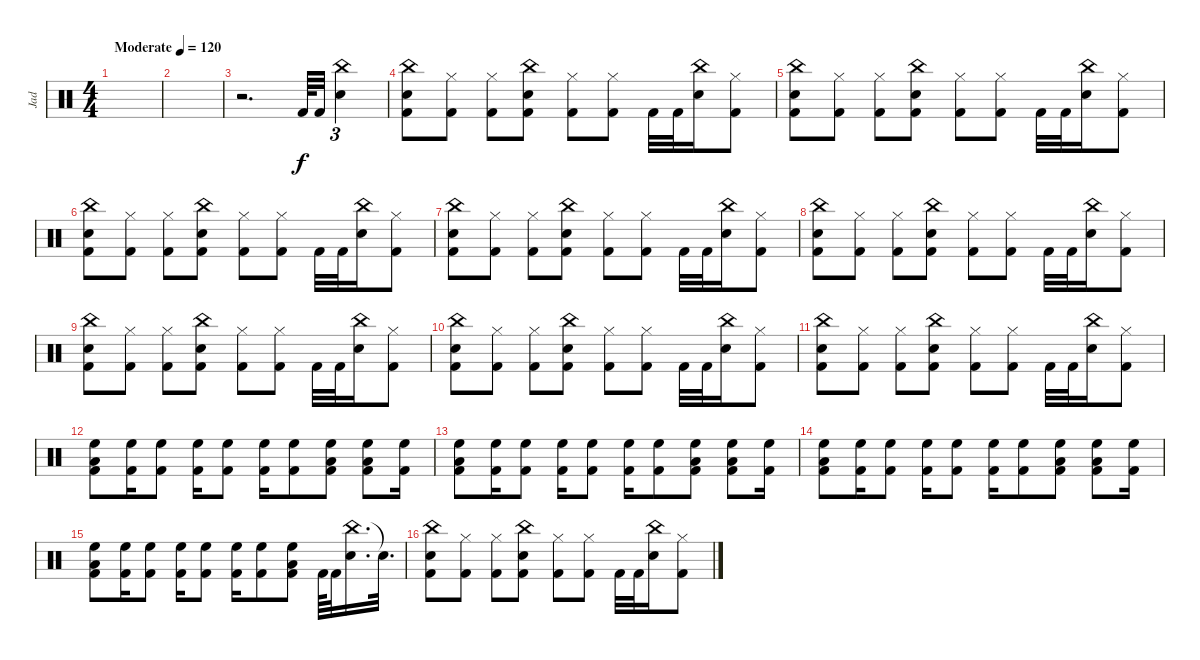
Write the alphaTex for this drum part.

\track ("Jad" "Jad") {instrument percussion}
\staff {score}
\articulation defaults
\ts (4 4)
\tempo (120 "Moderate")
\clef neutral
\ks c
|
|
r.2{d} "Kick (hit) 2".64 "Kick (hit) 2".32 ("China (hit)" "Electric Snare (hit)").4{tu (3 2)} |
("Electric Snare (hit)" "Kick (hit) 2" "China (hit)").8 ("Hi-Hat (closed)" "Kick (hit) 2").8 ("Hi-Hat (closed)" "Kick (hit) 2").8 ("Electric Snare (hit)" "Kick (hit) 2" "China (hit)").8 ("Hi-Hat (closed)" "Kick (hit) 2").8 ("Hi-Hat (closed)" "Kick (hit) 2").8 "Kick (hit) 2".32 "Kick (hit) 2".32 ("Electric Snare (hit)" "China (hit)").16 ("Hi-Hat (closed)" "Kick (hit) 2").8 |
("Electric Snare (hit)" "Kick (hit) 2" "China (hit)").8 ("Hi-Hat (closed)" "Kick (hit) 2").8 ("Hi-Hat (closed)" "Kick (hit) 2").8 ("Electric Snare (hit)" "Kick (hit) 2" "China (hit)").8 ("Hi-Hat (closed)" "Kick (hit) 2").8 ("Hi-Hat (closed)" "Kick (hit) 2").8 "Kick (hit) 2".32 "Kick (hit) 2".32 ("Electric Snare (hit)" "China (hit)").16 ("Hi-Hat (closed)" "Kick (hit) 2").8 |
("Electric Snare (hit)" "Kick (hit) 2" "China (hit)").8 ("Hi-Hat (closed)" "Kick (hit) 2").8 ("Hi-Hat (closed)" "Kick (hit) 2").8 ("Electric Snare (hit)" "Kick (hit) 2" "China (hit)").8 ("Hi-Hat (closed)" "Kick (hit) 2").8 ("Hi-Hat (closed)" "Kick (hit) 2").8 "Kick (hit) 2".32 "Kick (hit) 2".32 ("Electric Snare (hit)" "China (hit)").16 ("Hi-Hat (closed)" "Kick (hit) 2").8 |
("Electric Snare (hit)" "Kick (hit) 2" "China (hit)").8 ("Hi-Hat (closed)" "Kick (hit) 2").8 ("Hi-Hat (closed)" "Kick (hit) 2").8 ("Electric Snare (hit)" "Kick (hit) 2" "China (hit)").8 ("Hi-Hat (closed)" "Kick (hit) 2").8 ("Hi-Hat (closed)" "Kick (hit) 2").8 "Kick (hit) 2".32 "Kick (hit) 2".32 ("Electric Snare (hit)" "China (hit)").16 ("Hi-Hat (closed)" "Kick (hit) 2").8 |
("Electric Snare (hit)" "Kick (hit) 2" "China (hit)").8 ("Hi-Hat (closed)" "Kick (hit) 2").8 ("Hi-Hat (closed)" "Kick (hit) 2").8 ("Electric Snare (hit)" "Kick (hit) 2" "China (hit)").8 ("Hi-Hat (closed)" "Kick (hit) 2").8 ("Hi-Hat (closed)" "Kick (hit) 2").8 "Kick (hit) 2".32 "Kick (hit) 2".32 ("Electric Snare (hit)" "China (hit)").16 ("Hi-Hat (closed)" "Kick (hit) 2").8 |
("Electric Snare (hit)" "Kick (hit) 2" "China (hit)").8 ("Hi-Hat (closed)" "Kick (hit) 2").8 ("Hi-Hat (closed)" "Kick (hit) 2").8 ("Electric Snare (hit)" "Kick (hit) 2" "China (hit)").8 ("Hi-Hat (closed)" "Kick (hit) 2").8 ("Hi-Hat (closed)" "Kick (hit) 2").8 "Kick (hit) 2".32 "Kick (hit) 2".32 ("Electric Snare (hit)" "China (hit)").16 ("Hi-Hat (closed)" "Kick (hit) 2").8 |
("Electric Snare (hit)" "Kick (hit) 2" "China (hit)").8 ("Hi-Hat (closed)" "Kick (hit) 2").8 ("Hi-Hat (closed)" "Kick (hit) 2").8 ("Electric Snare (hit)" "Kick (hit) 2" "China (hit)").8 ("Hi-Hat (closed)" "Kick (hit) 2").8 ("Hi-Hat (closed)" "Kick (hit) 2").8 "Kick (hit) 2".32 "Kick (hit) 2".32 ("Electric Snare (hit)" "China (hit)").16 ("Hi-Hat (closed)" "Kick (hit) 2").8 |
("Electric Snare (hit)" "Kick (hit) 2" "China (hit)").8 ("Hi-Hat (closed)" "Kick (hit) 2").8 ("Hi-Hat (closed)" "Kick (hit) 2").8 ("Electric Snare (hit)" "Kick (hit) 2" "China (hit)").8 ("Hi-Hat (closed)" "Kick (hit) 2").8 ("Hi-Hat (closed)" "Kick (hit) 2").8 "Kick (hit) 2".32 "Kick (hit) 2".32 ("Electric Snare (hit)" "China (hit)").16 ("Hi-Hat (closed)" "Kick (hit) 2").8 |
("High Floor Tom (hit)" "Low Tom (hit)" "Kick (hit) 2").8 ("High Floor Tom (hit)" "Kick (hit) 2").16 ("High Floor Tom (hit)" "Kick (hit) 2").8 ("High Floor Tom (hit)" "Kick (hit) 2").16 ("High Floor Tom (hit)" "Kick (hit) 2").8 ("High Floor Tom (hit)" "Kick (hit) 2").16 ("High Floor Tom (hit)" "Kick (hit) 2").8 ("High Floor Tom (hit)" "Low Tom (hit)" "Kick (hit) 2").8 ("High Floor Tom (hit)" "Low Tom (hit)" "Kick (hit) 2").8 ("High Floor Tom (hit)" "Kick (hit) 2").16 |
("High Floor Tom (hit)" "Low Tom (hit)" "Kick (hit) 2").8 ("High Floor Tom (hit)" "Kick (hit) 2").16 ("High Floor Tom (hit)" "Kick (hit) 2").8 ("High Floor Tom (hit)" "Kick (hit) 2").16 ("High Floor Tom (hit)" "Kick (hit) 2").8 ("High Floor Tom (hit)" "Kick (hit) 2").16 ("High Floor Tom (hit)" "Kick (hit) 2").8 ("High Floor Tom (hit)" "Low Tom (hit)" "Kick (hit) 2").8 ("High Floor Tom (hit)" "Low Tom (hit)" "Kick (hit) 2").8 ("High Floor Tom (hit)" "Kick (hit) 2").16 |
("High Floor Tom (hit)" "Low Tom (hit)" "Kick (hit) 2").8 ("High Floor Tom (hit)" "Kick (hit) 2").16 ("High Floor Tom (hit)" "Kick (hit) 2").8 ("High Floor Tom (hit)" "Kick (hit) 2").16 ("High Floor Tom (hit)" "Kick (hit) 2").8 ("High Floor Tom (hit)" "Kick (hit) 2").16 ("High Floor Tom (hit)" "Kick (hit) 2").8 ("High Floor Tom (hit)" "Low Tom (hit)" "Kick (hit) 2").8 ("High Floor Tom (hit)" "Low Tom (hit)" "Kick (hit) 2").8 ("High Floor Tom (hit)" "Kick (hit) 2").16 |
("High Floor Tom (hit)" "Low Tom (hit)" "Kick (hit) 2").8 ("High Floor Tom (hit)" "Kick (hit) 2").16 ("High Floor Tom (hit)" "Kick (hit) 2").8 ("High Floor Tom (hit)" "Kick (hit) 2").16 ("High Floor Tom (hit)" "Kick (hit) 2").8 ("High Floor Tom (hit)" "Kick (hit) 2").16 ("High Floor Tom (hit)" "Kick (hit) 2").8 ("High Floor Tom (hit)" "Low Tom (hit)" "Kick (hit) 2").8 "Kick (hit) 2".64 "Kick (hit) 2".32 ("China (hit)" "Electric Snare (hit)").16{d} "Snare (hit)"{t}.32{d} |
("Electric Snare (hit)" "Kick (hit) 2" "China (hit)").8 ("Hi-Hat (closed)" "Kick (hit) 2").8 ("Hi-Hat (closed)" "Kick (hit) 2").8 ("Electric Snare (hit)" "Kick (hit) 2" "China (hit)").8 ("Hi-Hat (closed)" "Kick (hit) 2").8 ("Hi-Hat (closed)" "Kick (hit) 2").8 "Kick (hit) 2".32 "Kick (hit) 2".32 ("Electric Snare (hit)" "China (hit)").16 ("Hi-Hat (closed)" "Kick (hit) 2").8
